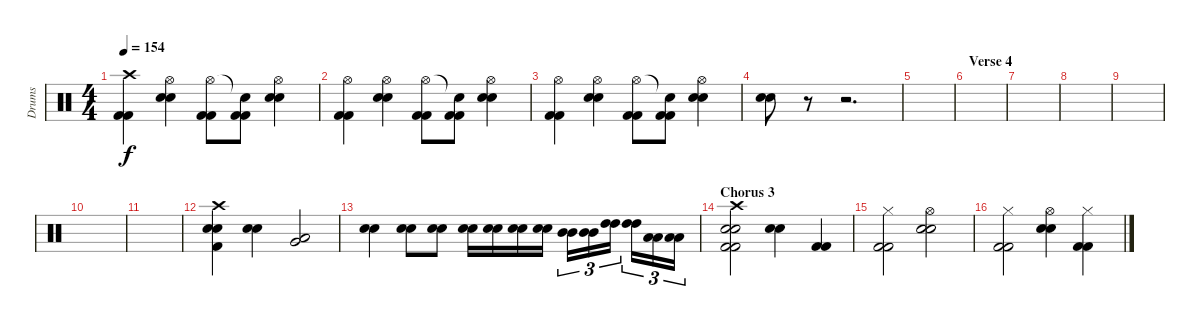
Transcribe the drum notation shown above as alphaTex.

\track ("Drums" "Drums") {instrument percussion}
\staff {score}
\articulation defaults
\ts (4 4)
\tempo 154
\clef neutral
\ks c
("Crash high (hit)" "Kick (hit) 2" "Kick (hit) 2").4{dy f} ("Hi-Hat (open)" "Snare (hit) 2" "Snare (hit) 2").4 ("Hi-Hat (open)" "Kick (hit) 2" "Kick (hit) 2").8 ("Snare (hit)"{t} "Kick (hit) 2" "Kick (hit) 2").8 ("Hi-Hat (open)" "Snare (hit) 2" "Snare (hit) 2").4 |
("Hi-Hat (open)" "Kick (hit) 2" "Kick (hit) 2").4 ("Hi-Hat (open)" "Snare (hit) 2" "Snare (hit) 2").4 ("Hi-Hat (open)" "Kick (hit) 2" "Kick (hit) 2").8 ("Snare (hit)"{t} "Kick (hit) 2" "Kick (hit) 2").8 ("Hi-Hat (open)" "Snare (hit) 2" "Snare (hit) 2").4 |
("Hi-Hat (open)" "Kick (hit) 2" "Kick (hit) 2").4 ("Hi-Hat (open)" "Snare (hit) 2" "Snare (hit) 2").4 ("Hi-Hat (open)" "Kick (hit) 2" "Kick (hit) 2").8 ("Snare (hit)"{t} "Kick (hit) 2" "Kick (hit) 2").8 ("Hi-Hat (open)" "Snare (hit) 2" "Snare (hit) 2").4 |
("Snare (hit) 2" "Snare (hit) 2").8 r.8 r.2{d} |
|
\section ("" "Verse 4")
|
|
|
|
|
|
("Crash high (hit)" "Snare (hit) 2" "Snare (hit) 2" "Kick (hit) 2").4 ("Snare (hit) 2" "Snare (hit) 2").4 ("Very Low Tom (hit)" "Low Floor Tom (hit)").2 |
("Snare (hit) 2" "Snare (hit) 2").4 ("Snare (hit) 2" "Snare (hit) 2").8 ("Snare (hit) 2" "Snare (hit) 2").8 ("Snare (hit) 2" "Snare (hit) 2").16 ("Snare (hit) 2" "Snare (hit) 2").16 ("Snare (hit) 2" "Snare (hit) 2").16 ("Snare (hit) 2" "Snare (hit) 2").16 ("Mid Tom (hit)" "Mid Tom (hit)").16{tu (3 2)} ("Mid Tom (hit)" "Mid Tom (hit)").16{tu (3 2)} ("High Tom (hit)" "High Tom (hit)").16{tu (3 2)} ("High Tom (hit)" "High Tom (hit)").16{tu (3 2)} ("Low Tom (hit)" "Low Tom (hit)").16{tu (3 2)} ("Low Tom (hit)" "Low Tom (hit)").16{tu (3 2)} |
\section ("" "Chorus 3")
("Crash high (hit)" "Snare (hit) 2" "Snare (hit) 2" "Kick (hit) 2" "Kick (hit) 2").2 ("Snare (hit) 2" "Snare (hit) 2").4 ("Kick (hit) 2" "Kick (hit) 2").4 |
("Hi-Hat (closed)" "Kick (hit) 2" "Kick (hit) 2").2 ("Hi-Hat (open)" "Snare (hit) 2" "Snare (hit) 2").2 |
("Hi-Hat (closed)" "Kick (hit) 2" "Kick (hit) 2").2 ("Hi-Hat (open)" "Snare (hit) 2" "Snare (hit) 2").4 ("Hi-Hat (closed)" "Kick (hit) 2" "Kick (hit) 2").4
